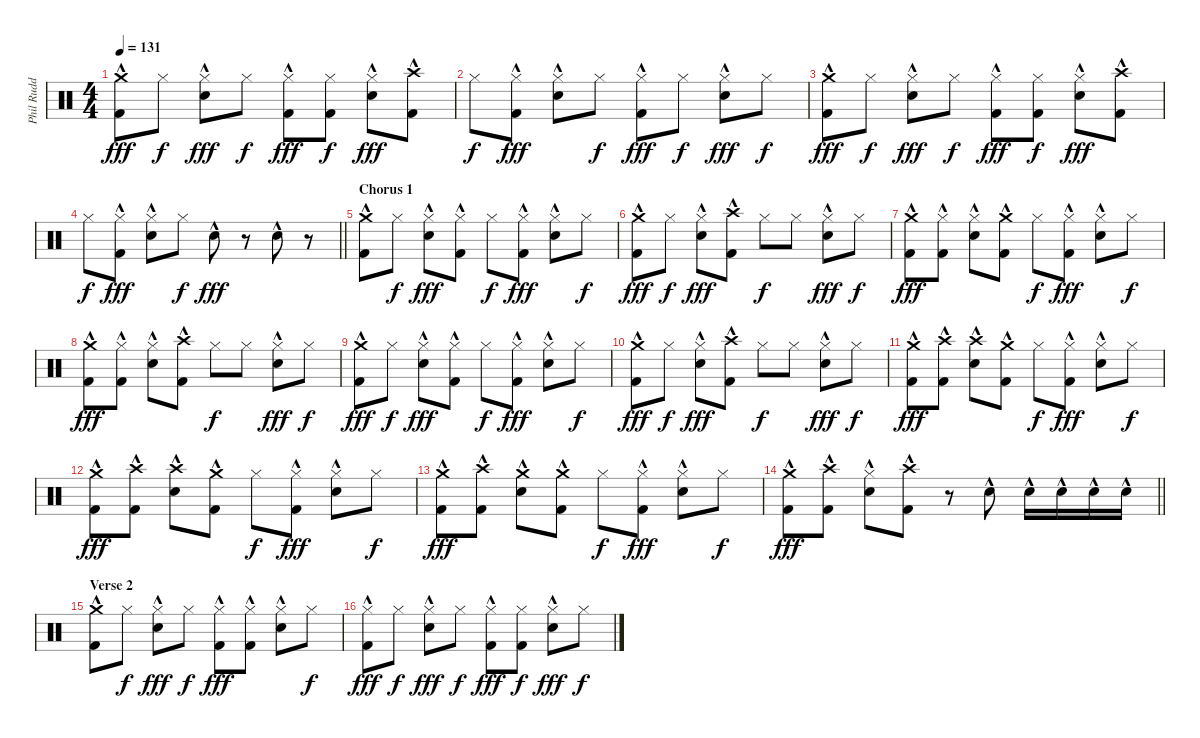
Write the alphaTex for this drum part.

\track ("Phil Rudd" "Phil Rudd") {instrument percussion}
\staff {score}
\articulation defaults
\ts (4 4)
\tempo 131
\clef neutral
\ks c
("Crash medium (hit)" "Kick (hit) 2"{hac}).8{dy fff} "Hi-Hat (closed)".8{dy f} ("Hi-Hat (closed)" "Electric Snare (hit)"{hac}).8{dy fff} "Hi-Hat (closed)".8{dy f} ("Hi-Hat (closed)" "Kick (hit) 2"{hac}).8{dy fff} ("Hi-Hat (closed)" "Kick (hit) 2").8{dy f} ("Hi-Hat (closed)" "Electric Snare (hit)"{hac}).8{dy fff} ("Crash high (hit)" "Kick (hit) 2"{hac}).8 |
"Hi-Hat (closed)".8{dy f} ("Hi-Hat (closed)" "Kick (hit) 2"{hac}).8{dy fff} ("Hi-Hat (closed)" "Electric Snare (hit)"{hac}).8 "Hi-Hat (closed)".8{dy f} ("Hi-Hat (closed)" "Kick (hit) 2"{hac}).8{dy fff} "Hi-Hat (closed)".8{dy f} ("Hi-Hat (closed)" "Electric Snare (hit)"{hac}).8{dy fff} "Hi-Hat (closed)".8{dy f} |
("Crash medium (hit)" "Kick (hit) 2"{hac}).8{dy fff} "Hi-Hat (closed)".8{dy f} ("Hi-Hat (closed)" "Electric Snare (hit)"{hac}).8{dy fff} "Hi-Hat (closed)".8{dy f} ("Hi-Hat (closed)" "Kick (hit) 2"{hac}).8{dy fff} ("Hi-Hat (closed)" "Kick (hit) 2").8{dy f} ("Hi-Hat (closed)" "Electric Snare (hit)"{hac}).8{dy fff} ("Crash high (hit)" "Kick (hit) 2"{hac}).8 |
\barLineRight lightlight "Hi-Hat (closed)".8{dy f}
("Hi-Hat (closed)" "Kick (hit) 2"{hac}).8{dy fff} ("Hi-Hat (closed)" "Electric Snare (hit)"{hac}).8 "Hi-Hat (closed)".8{dy f} "Electric Snare (hit)"{hac}.8{dy fff} r.8 "Electric Snare (hit)"{hac}.8 r.8 |
\section ("" "Chorus 1")
("Crash medium (hit)" "Kick (hit) 2"{hac}).8 "Hi-Hat (closed)".8{dy f} ("Hi-Hat (closed)" "Electric Snare (hit)"{hac}).8{dy fff} ("Hi-Hat (closed)" "Kick (hit) 2"{hac}).8 "Hi-Hat (closed)".8{dy f} ("Hi-Hat (closed)" "Kick (hit) 2"{hac}).8{dy fff} ("Hi-Hat (closed)" "Electric Snare (hit)"{hac}).8 "Hi-Hat (closed)".8{dy f} |
("Crash medium (hit)" "Kick (hit) 2"{hac}).8{dy fff} "Hi-Hat (closed)".8{dy f} ("Hi-Hat (closed)" "Electric Snare (hit)"{hac}).8{dy fff} ("Crash high (hit)" "Kick (hit) 2"{hac}).8 "Hi-Hat (closed)".8{dy f} "Hi-Hat (closed)".8 ("Hi-Hat (closed)" "Electric Snare (hit)"{hac}).8{dy fff} "Hi-Hat (closed)".8{dy f} |
("Crash medium (hit)" "Kick (hit) 2"{hac}).8{dy fff} ("Hi-Hat (closed)" "Kick (hit) 2"{hac}).8 ("Hi-Hat (closed)" "Electric Snare (hit)"{hac}).8 ("Crash medium (hit)" "Kick (hit) 2"{hac}).8 "Hi-Hat (closed)".8{dy f} ("Hi-Hat (closed)" "Kick (hit) 2"{hac}).8{dy fff} ("Hi-Hat (closed)" "Electric Snare (hit)"{hac}).8 "Hi-Hat (closed)".8{dy f} |
("Crash medium (hit)" "Kick (hit) 2"{hac}).8{dy fff} ("Hi-Hat (closed)" "Kick (hit) 2"{hac}).8 ("Hi-Hat (closed)" "Electric Snare (hit)"{hac}).8 ("Crash high (hit)" "Kick (hit) 2"{hac}).8 "Hi-Hat (closed)".8{dy f} "Hi-Hat (closed)".8 ("Hi-Hat (closed)" "Electric Snare (hit)"{hac}).8{dy fff} "Hi-Hat (closed)".8{dy f} |
("Crash medium (hit)" "Kick (hit) 2"{hac}).8{dy fff} "Hi-Hat (closed)".8{dy f} ("Hi-Hat (closed)" "Electric Snare (hit)"{hac}).8{dy fff} ("Hi-Hat (closed)" "Kick (hit) 2"{hac}).8 "Hi-Hat (closed)".8{dy f} ("Hi-Hat (closed)" "Kick (hit) 2"{hac}).8{dy fff} ("Hi-Hat (closed)" "Electric Snare (hit)"{hac}).8 "Hi-Hat (closed)".8{dy f} |
("Crash medium (hit)" "Kick (hit) 2"{hac}).8{dy fff} "Hi-Hat (closed)".8{dy f} ("Hi-Hat (closed)" "Electric Snare (hit)"{hac}).8{dy fff} ("Crash high (hit)" "Kick (hit) 2"{hac}).8 "Hi-Hat (closed)".8{dy f} "Hi-Hat (closed)".8 ("Hi-Hat (closed)" "Electric Snare (hit)"{hac}).8{dy fff} "Hi-Hat (closed)".8{dy f} |
("Crash medium (hit)" "Kick (hit) 2"{hac}).8{dy fff} ("Crash high (hit)" "Kick (hit) 2"{hac}).8 ("Crash high (hit)" "Electric Snare (hit)"{hac}).8 ("Crash medium (hit)" "Kick (hit) 2"{hac}).8 "Hi-Hat (closed)".8{dy f} ("Hi-Hat (closed)" "Kick (hit) 2"{hac}).8{dy fff} ("Hi-Hat (closed)" "Electric Snare (hit)"{hac}).8 "Hi-Hat (closed)".8{dy f} |
("Crash medium (hit)" "Kick (hit) 2"{hac}).8{dy fff} ("Crash high (hit)" "Kick (hit) 2"{hac}).8 ("Crash high (hit)" "Electric Snare (hit)"{hac}).8 ("Crash medium (hit)" "Kick (hit) 2"{hac}).8 "Hi-Hat (closed)".8{dy f} ("Hi-Hat (closed)" "Kick (hit) 2"{hac}).8{dy fff} ("Hi-Hat (closed)" "Electric Snare (hit)"{hac}).8 "Hi-Hat (closed)".8{dy f} |
("Crash medium (hit)" "Kick (hit) 2"{hac}).8{dy fff} ("Crash high (hit)" "Kick (hit) 2"{hac}).8 ("Crash medium (hit)" "Electric Snare (hit)"{hac}).8 ("Crash medium (hit)" "Kick (hit) 2"{hac}).8 "Hi-Hat (closed)".8{dy f} ("Hi-Hat (closed)" "Kick (hit) 2"{hac}).8{dy fff} ("Hi-Hat (closed)" "Electric Snare (hit)"{hac}).8 "Hi-Hat (closed)".8{dy f} |
\barLineRight lightlight
("Crash medium (hit)" "Kick (hit) 2"{hac}).8{dy fff} ("Crash high (hit)" "Kick (hit) 2"{hac}).8 ("Hi-Hat (closed)" "Electric Snare (hit)"{hac}).8 ("Crash high (hit)" "Kick (hit) 2"{hac}).8 r.8 "Electric Snare (hit)"{hac}.8 "Electric Snare (hit)"{hac}.16 "Electric Snare (hit)"{hac}.16 "Electric Snare (hit)"{hac}.16 "Electric Snare (hit)"{hac}.16 |
\section ("" "Verse 2")
("Crash medium (hit)" "Kick (hit) 2"{hac}).8 "Hi-Hat (closed)".8{dy f} ("Hi-Hat (closed)" "Electric Snare (hit)"{hac}).8{dy fff} "Hi-Hat (closed)".8{dy f} ("Hi-Hat (closed)" "Kick (hit) 2"{hac}).8{dy fff} ("Hi-Hat (closed)" "Kick (hit) 2"{hac}).8 ("Hi-Hat (closed)" "Electric Snare (hit)"{hac}).8 "Hi-Hat (closed)".8{dy f} |
("Hi-Hat (closed)" "Kick (hit) 2"{hac}).8{dy fff} "Hi-Hat (closed)".8{dy f} ("Hi-Hat (closed)" "Electric Snare (hit)"{hac}).8{dy fff} "Hi-Hat (closed)".8{dy f} ("Hi-Hat (closed)" "Kick (hit) 2"{hac}).8{dy fff} ("Hi-Hat (closed)" "Kick (hit) 2").8{dy f} ("Hi-Hat (closed)" "Electric Snare (hit)"{hac}).8{dy fff} "Hi-Hat (closed)".8{dy f}
